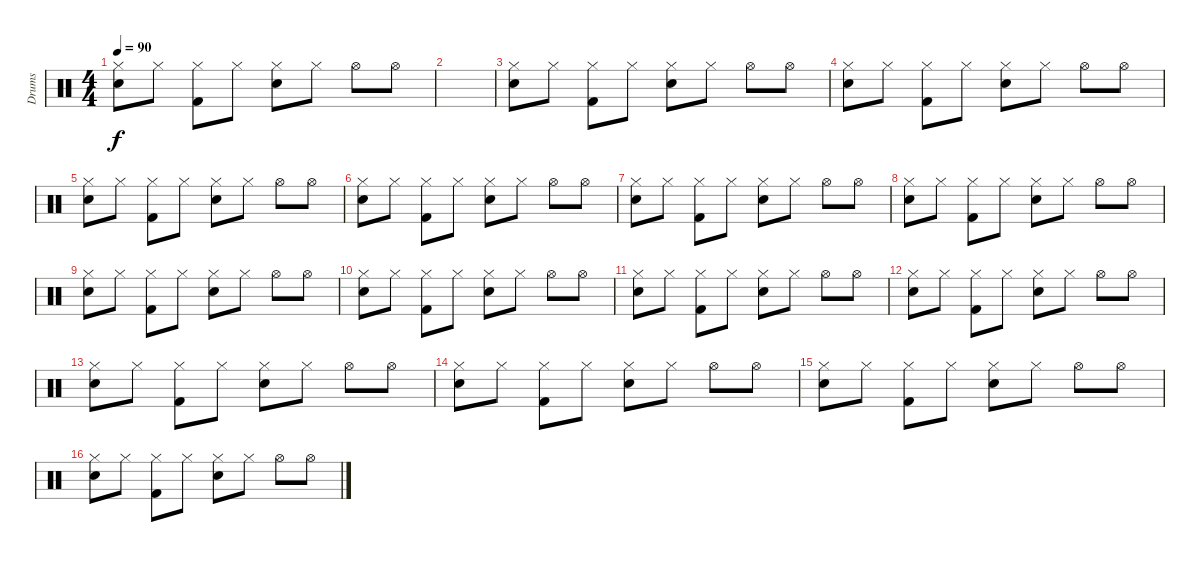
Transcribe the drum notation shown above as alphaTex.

\track ("Drums" "Drums") {instrument percussion}
\staff {score}
\articulation defaults
\ts (4 4)
\tempo 90
\clef neutral
\ks c
("Hi-Hat (closed)" "Snare (hit) 2").8{dy f} "Hi-Hat (closed)".8 ("Hi-Hat (closed)" "Kick (hit) 2").8 "Hi-Hat (closed)".8 ("Hi-Hat (closed)" "Snare (hit) 2").8 "Hi-Hat (closed)".8 "Hi-Hat (open)".8 "Hi-Hat (open)".8 |
|
("Hi-Hat (closed)" "Snare (hit) 2").8 "Hi-Hat (closed)".8 ("Hi-Hat (closed)" "Kick (hit) 2").8 "Hi-Hat (closed)".8 ("Hi-Hat (closed)" "Snare (hit) 2").8 "Hi-Hat (closed)".8 "Hi-Hat (open)".8 "Hi-Hat (open)".8 |
("Hi-Hat (closed)" "Snare (hit) 2").8 "Hi-Hat (closed)".8 ("Hi-Hat (closed)" "Kick (hit) 2").8 "Hi-Hat (closed)".8 ("Hi-Hat (closed)" "Snare (hit) 2").8 "Hi-Hat (closed)".8 "Hi-Hat (open)".8 "Hi-Hat (open)".8 |
("Hi-Hat (closed)" "Snare (hit) 2").8 "Hi-Hat (closed)".8 ("Hi-Hat (closed)" "Kick (hit) 2").8 "Hi-Hat (closed)".8 ("Hi-Hat (closed)" "Snare (hit) 2").8 "Hi-Hat (closed)".8 "Hi-Hat (open)".8 "Hi-Hat (open)".8 |
("Hi-Hat (closed)" "Snare (hit) 2").8 "Hi-Hat (closed)".8 ("Hi-Hat (closed)" "Kick (hit) 2").8 "Hi-Hat (closed)".8 ("Hi-Hat (closed)" "Snare (hit) 2").8 "Hi-Hat (closed)".8 "Hi-Hat (open)".8 "Hi-Hat (open)".8 |
("Hi-Hat (closed)" "Snare (hit) 2").8 "Hi-Hat (closed)".8 ("Hi-Hat (closed)" "Kick (hit) 2").8 "Hi-Hat (closed)".8 ("Hi-Hat (closed)" "Snare (hit) 2").8 "Hi-Hat (closed)".8 "Hi-Hat (open)".8 "Hi-Hat (open)".8 |
("Hi-Hat (closed)" "Snare (hit) 2").8 "Hi-Hat (closed)".8 ("Hi-Hat (closed)" "Kick (hit) 2").8 "Hi-Hat (closed)".8 ("Hi-Hat (closed)" "Snare (hit) 2").8 "Hi-Hat (closed)".8 "Hi-Hat (open)".8 "Hi-Hat (open)".8 |
("Hi-Hat (closed)" "Snare (hit) 2").8 "Hi-Hat (closed)".8 ("Hi-Hat (closed)" "Kick (hit) 2").8 "Hi-Hat (closed)".8 ("Hi-Hat (closed)" "Snare (hit) 2").8 "Hi-Hat (closed)".8 "Hi-Hat (open)".8 "Hi-Hat (open)".8 |
("Hi-Hat (closed)" "Snare (hit) 2").8 "Hi-Hat (closed)".8 ("Hi-Hat (closed)" "Kick (hit) 2").8 "Hi-Hat (closed)".8 ("Hi-Hat (closed)" "Snare (hit) 2").8 "Hi-Hat (closed)".8 "Hi-Hat (open)".8 "Hi-Hat (open)".8 |
("Hi-Hat (closed)" "Snare (hit) 2").8 "Hi-Hat (closed)".8 ("Hi-Hat (closed)" "Kick (hit) 2").8 "Hi-Hat (closed)".8 ("Hi-Hat (closed)" "Snare (hit) 2").8 "Hi-Hat (closed)".8 "Hi-Hat (open)".8 "Hi-Hat (open)".8 |
("Hi-Hat (closed)" "Snare (hit) 2").8 "Hi-Hat (closed)".8 ("Hi-Hat (closed)" "Kick (hit) 2").8 "Hi-Hat (closed)".8 ("Hi-Hat (closed)" "Snare (hit) 2").8 "Hi-Hat (closed)".8 "Hi-Hat (open)".8 "Hi-Hat (open)".8 |
("Hi-Hat (closed)" "Snare (hit) 2").8 "Hi-Hat (closed)".8 ("Hi-Hat (closed)" "Kick (hit) 2").8 "Hi-Hat (closed)".8 ("Hi-Hat (closed)" "Snare (hit) 2").8 "Hi-Hat (closed)".8 "Hi-Hat (open)".8 "Hi-Hat (open)".8 |
("Hi-Hat (closed)" "Snare (hit) 2").8 "Hi-Hat (closed)".8 ("Hi-Hat (closed)" "Kick (hit) 2").8 "Hi-Hat (closed)".8 ("Hi-Hat (closed)" "Snare (hit) 2").8 "Hi-Hat (closed)".8 "Hi-Hat (open)".8 "Hi-Hat (open)".8 |
("Hi-Hat (closed)" "Snare (hit) 2").8 "Hi-Hat (closed)".8 ("Hi-Hat (closed)" "Kick (hit) 2").8 "Hi-Hat (closed)".8 ("Hi-Hat (closed)" "Snare (hit) 2").8 "Hi-Hat (closed)".8 "Hi-Hat (open)".8 "Hi-Hat (open)".8 |
("Hi-Hat (closed)" "Snare (hit) 2").8 "Hi-Hat (closed)".8 ("Hi-Hat (closed)" "Kick (hit) 2").8 "Hi-Hat (closed)".8 ("Hi-Hat (closed)" "Snare (hit) 2").8 "Hi-Hat (closed)".8 "Hi-Hat (open)".8 "Hi-Hat (open)".8
